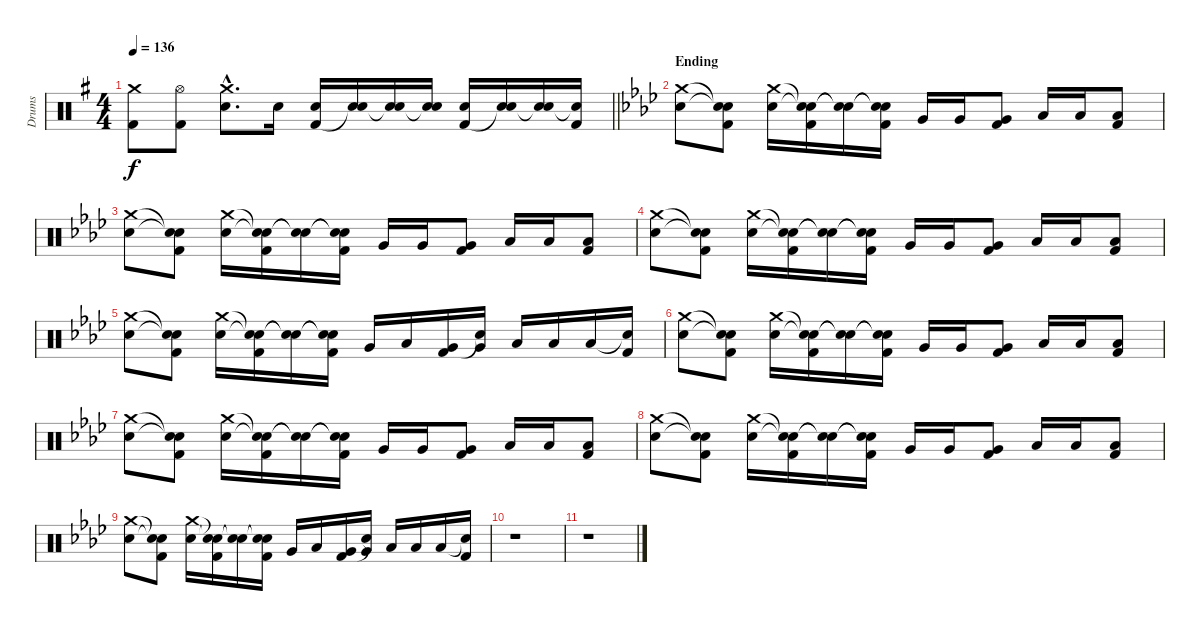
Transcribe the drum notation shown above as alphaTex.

\track ("Drums" "Drums") {instrument percussion}
\staff {score}
\articulation defaults
\ts (4 4)
\tempo 136
\clef neutral
\barLineRight lightlight
\ks g
("Crash medium (hit)" "Kick (hit) 2").8{dy f} ("Hi-Hat (open)" "Kick (hit) 2").8 ("Crash medium (hit)"{hac} "Electric Snare (hit)"{hac}).8{d} "Electric Snare (hit)".16 ("Electric Snare (hit)" "Kick (hit) 2").16 ("Electric Snare (hit)" "Snare (hit)"{t}).16 ("Electric Snare (hit)" "Snare (hit)"{t}).16 ("Electric Snare (hit)" "Snare (hit)"{t}).16 ("Electric Snare (hit)" "Kick (hit) 2").16 ("Electric Snare (hit)" "Snare (hit)"{t}).16 ("Electric Snare (hit)" "Snare (hit)"{t}).16 ("Snare (hit)"{t} "Kick (hit) 2").16 |
\section ("" "Ending")
\ks ab
("Crash medium (hit)" "Electric Snare (hit)").8 ("Snare (hit)"{t} "Snare (hit)"{t} "Kick (hit) 2").8 ("Crash medium (hit)" "Electric Snare (hit)").16 ("Snare (hit)"{t} "Snare (hit)"{t} "Kick (hit) 2").16 ("Snare (hit)"{t} "Snare (hit)"{t}).16 ("Snare (hit)"{t} "Snare (hit)"{t} "Kick (hit) 2").16 "Very Low Tom (hit)".16 "Very Low Tom (hit)".16 ("Very Low Tom (hit)" "Kick (hit) 2").8 "Low Floor Tom (hit)".16 "Low Floor Tom (hit)".16 ("Low Floor Tom (hit)" "Kick (hit) 2").8 |
("Crash medium (hit)" "Electric Snare (hit)").8 ("Snare (hit)"{t} "Snare (hit)"{t} "Kick (hit) 2").8 ("Crash medium (hit)" "Electric Snare (hit)").16 ("Snare (hit)"{t} "Snare (hit)"{t} "Kick (hit) 2").16 ("Snare (hit)"{t} "Snare (hit)"{t}).16 ("Snare (hit)"{t} "Snare (hit)"{t} "Kick (hit) 2").16 "Very Low Tom (hit)".16 "Very Low Tom (hit)".16 ("Very Low Tom (hit)" "Kick (hit) 2").8 "Low Floor Tom (hit)".16 "Low Floor Tom (hit)".16 ("Low Floor Tom (hit)" "Kick (hit) 2").8 |
("Crash medium (hit)" "Electric Snare (hit)").8 ("Snare (hit)"{t} "Snare (hit)"{t} "Kick (hit) 2").8 ("Crash medium (hit)" "Electric Snare (hit)").16 ("Snare (hit)"{t} "Snare (hit)"{t} "Kick (hit) 2").16 ("Snare (hit)"{t} "Snare (hit)"{t}).16 ("Snare (hit)"{t} "Snare (hit)"{t} "Kick (hit) 2").16 "Very Low Tom (hit)".16 "Very Low Tom (hit)".16 ("Very Low Tom (hit)" "Kick (hit) 2").8 "Low Floor Tom (hit)".16 "Low Floor Tom (hit)".16 ("Low Floor Tom (hit)" "Kick (hit) 2").8 |
("Crash medium (hit)" "Electric Snare (hit)").8 ("Snare (hit)"{t} "Snare (hit)"{t} "Kick (hit) 2").8 ("Crash medium (hit)" "Electric Snare (hit)").16 ("Snare (hit)"{t} "Snare (hit)"{t} "Kick (hit) 2").16 ("Snare (hit)"{t} "Snare (hit)"{t}).16 ("Snare (hit)"{t} "Snare (hit)"{t} "Kick (hit) 2").16 "Very Low Tom (hit)".16 "Low Tom (hit)".16 ("Very Low Tom (hit)" "Kick (hit) 2").16 ("Very Low Tom (hit)" "Snare (hit)"{t}).16 "Low Floor Tom (hit)".16 "Low Floor Tom (hit)".16 "Low Floor Tom (hit)".16 ("Snare (hit)"{t} "Kick (hit) 2").16 |
("Crash medium (hit)" "Electric Snare (hit)").8 ("Snare (hit)"{t} "Snare (hit)"{t} "Kick (hit) 2").8 ("Crash medium (hit)" "Electric Snare (hit)").16 ("Snare (hit)"{t} "Snare (hit)"{t} "Kick (hit) 2").16 ("Snare (hit)"{t} "Snare (hit)"{t}).16 ("Snare (hit)"{t} "Snare (hit)"{t} "Kick (hit) 2").16 "Very Low Tom (hit)".16 "Very Low Tom (hit)".16 ("Very Low Tom (hit)" "Kick (hit) 2").8 "Low Floor Tom (hit)".16 "Low Floor Tom (hit)".16 ("Low Floor Tom (hit)" "Kick (hit) 2").8 |
("Crash medium (hit)" "Electric Snare (hit)").8 ("Snare (hit)"{t} "Snare (hit)"{t} "Kick (hit) 2").8 ("Crash medium (hit)" "Electric Snare (hit)").16 ("Snare (hit)"{t} "Snare (hit)"{t} "Kick (hit) 2").16 ("Snare (hit)"{t} "Snare (hit)"{t}).16 ("Snare (hit)"{t} "Snare (hit)"{t} "Kick (hit) 2").16 "Very Low Tom (hit)".16 "Very Low Tom (hit)".16 ("Very Low Tom (hit)" "Kick (hit) 2").8 "Low Floor Tom (hit)".16 "Low Floor Tom (hit)".16 ("Low Floor Tom (hit)" "Kick (hit) 2").8 |
("Crash medium (hit)" "Electric Snare (hit)").8 ("Snare (hit)"{t} "Snare (hit)"{t} "Kick (hit) 2").8 ("Crash medium (hit)" "Electric Snare (hit)").16 ("Snare (hit)"{t} "Snare (hit)"{t} "Kick (hit) 2").16 ("Snare (hit)"{t} "Snare (hit)"{t}).16 ("Snare (hit)"{t} "Snare (hit)"{t} "Kick (hit) 2").16 "Very Low Tom (hit)".16 "Very Low Tom (hit)".16 ("Very Low Tom (hit)" "Kick (hit) 2").8 "Low Floor Tom (hit)".16 "Low Floor Tom (hit)".16 ("Low Floor Tom (hit)" "Kick (hit) 2").8 |
("Crash medium (hit)" "Electric Snare (hit)").8 ("Snare (hit)"{t} "Snare (hit)"{t} "Kick (hit) 2").8 ("Crash medium (hit)" "Electric Snare (hit)").16 ("Snare (hit)"{t} "Snare (hit)"{t} "Kick (hit) 2").16 ("Snare (hit)"{t} "Snare (hit)"{t}).16 ("Snare (hit)"{t} "Snare (hit)"{t} "Kick (hit) 2").16 "Very Low Tom (hit)".16 "Low Tom (hit)".16 ("Very Low Tom (hit)" "Kick (hit) 2").16 ("Very Low Tom (hit)" "Snare (hit)"{t}).16 "Low Floor Tom (hit)".16 "Low Floor Tom (hit)".16 "Low Floor Tom (hit)".16 ("Snare (hit)"{t} "Kick (hit) 2").16 |
r.1 |
r.1
